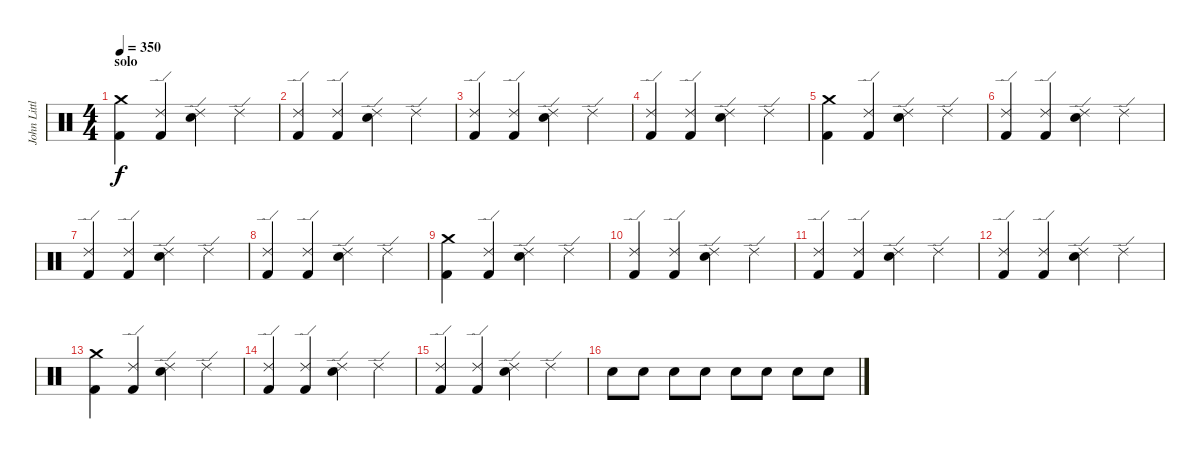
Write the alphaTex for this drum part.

\track ("John Littler - Drums" "John Littl") {instrument percussion}
\staff {score}
\articulation defaults
\ts (4 4)
\section ("" "solo")
\tempo 350
\clef neutral
\ks c
("Crash medium (hit)" "Kick (hit) 2").4{dy f} ("Ride (edge) 2" "Kick (hit) 2").4 ("Ride (edge) 2" "Snare (hit) 2").4 "Ride (edge) 2".4 |
("Ride (edge) 2" "Kick (hit) 2").4 ("Ride (edge) 2" "Kick (hit) 2").4 ("Ride (edge) 2" "Snare (hit) 2").4 "Ride (edge) 2".4 |
("Ride (edge) 2" "Kick (hit) 2").4 ("Ride (edge) 2" "Kick (hit) 2").4 ("Ride (edge) 2" "Snare (hit) 2").4 "Ride (edge) 2".4 |
("Ride (edge) 2" "Kick (hit) 2").4 ("Ride (edge) 2" "Kick (hit) 2").4 ("Ride (edge) 2" "Snare (hit) 2").4 "Ride (edge) 2".4 |
("Crash medium (hit)" "Kick (hit) 2").4 ("Ride (edge) 2" "Kick (hit) 2").4 ("Ride (edge) 2" "Snare (hit) 2").4 "Ride (edge) 2".4 |
("Ride (edge) 2" "Kick (hit) 2").4 ("Ride (edge) 2" "Kick (hit) 2").4 ("Ride (edge) 2" "Snare (hit) 2").4 "Ride (edge) 2".4 |
("Ride (edge) 2" "Kick (hit) 2").4 ("Ride (edge) 2" "Kick (hit) 2").4 ("Ride (edge) 2" "Snare (hit) 2").4 "Ride (edge) 2".4 |
("Ride (edge) 2" "Kick (hit) 2").4 ("Ride (edge) 2" "Kick (hit) 2").4 ("Ride (edge) 2" "Snare (hit) 2").4 "Ride (edge) 2".4 |
("Crash medium (hit)" "Kick (hit) 2").4 ("Ride (edge) 2" "Kick (hit) 2").4 ("Ride (edge) 2" "Snare (hit) 2").4 "Ride (edge) 2".4 |
("Ride (edge) 2" "Kick (hit) 2").4 ("Ride (edge) 2" "Kick (hit) 2").4 ("Ride (edge) 2" "Snare (hit) 2").4 "Ride (edge) 2".4 |
("Ride (edge) 2" "Kick (hit) 2").4 ("Ride (edge) 2" "Kick (hit) 2").4 ("Ride (edge) 2" "Snare (hit) 2").4 "Ride (edge) 2".4 |
("Ride (edge) 2" "Kick (hit) 2").4 ("Ride (edge) 2" "Kick (hit) 2").4 ("Ride (edge) 2" "Snare (hit) 2").4 "Ride (edge) 2".4 |
("Crash medium (hit)" "Kick (hit) 2").4 ("Ride (edge) 2" "Kick (hit) 2").4 ("Ride (edge) 2" "Snare (hit) 2").4 "Ride (edge) 2".4 |
("Ride (edge) 2" "Kick (hit) 2").4 ("Ride (edge) 2" "Kick (hit) 2").4 ("Ride (edge) 2" "Snare (hit) 2").4 "Ride (edge) 2".4 |
("Ride (edge) 2" "Kick (hit) 2").4 ("Ride (edge) 2" "Kick (hit) 2").4 ("Ride (edge) 2" "Snare (hit) 2").4 "Ride (edge) 2".4 |
"Snare (hit) 2".8 "Snare (hit) 2".8 "Snare (hit) 2".8 "Snare (hit) 2".8 "Snare (hit) 2".8 "Snare (hit) 2".8 "Snare (hit) 2".8 "Snare (hit) 2".8
